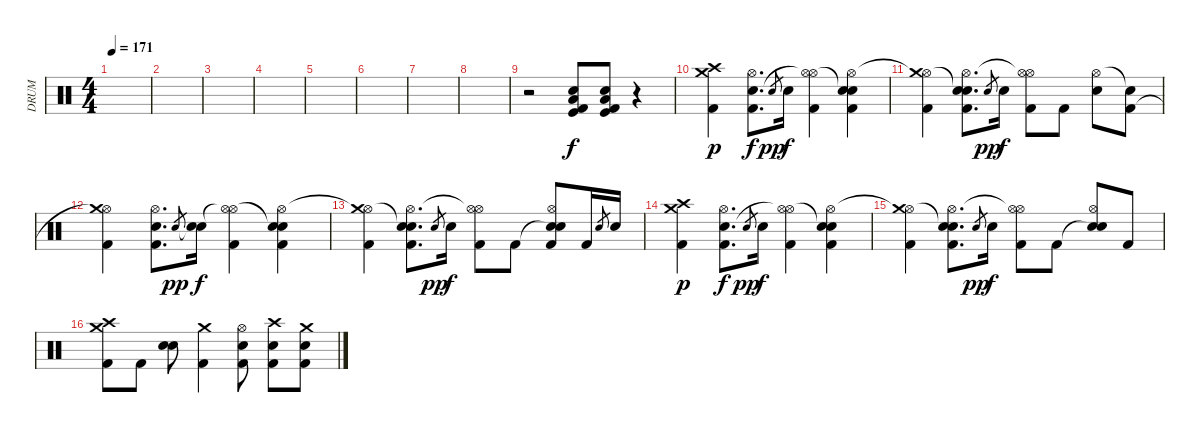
\track ("DRUM" "DRUM") {instrument percussion}
\staff {score}
\articulation defaults
\ts (4 4)
\tempo 171
\clef neutral
\ks c
|
|
|
|
|
|
|
|
r.2 ("Electric Snare (hit)" "Low Floor Tom (hit)" "Kick (hit)" "Kick (hit) 2").8 ("Electric Snare (hit)" "Low Floor Tom (hit)" "Kick (hit)" "Kick (hit) 2").8 r.4 |
("Crash high (hit)" "Crash medium (hit)" "Kick (hit) 2").4{dy p} ("Hi-Hat (open)" "Electric Snare (hit)" "Kick (hit) 2").8{d dy f} "Electric Snare (hit)".8{gr dy pp} "Electric Snare (hit)".16{dy f} ("Hi-Hat (open)" "Hi-Hat (open)"{t} "Kick (hit) 2").4 ("Snare (hit)"{t} "Hi-Hat (open)" "Electric Snare (hit)" "Kick (hit) 2").4 |
("Hi-Hat (open)" "Crash medium (hit)"{t} "Kick (hit) 2").4 ("Snare (hit)"{t} "Hi-Hat (open)" "Electric Snare (hit)" "Kick (hit) 2").8{d} "Electric Snare (hit)".8{gr dy pp} "Electric Snare (hit)".16{dy f} ("Hi-Hat (open)" "Hi-Hat (open)"{t} "Kick (hit) 2").8 "Kick (hit) 2".8 ("Hi-Hat (open)" "Electric Snare (hit)").8 ("Snare (hit)"{t} "Kick (hit) 2").8 |
("Hi-Hat (open)" "Crash medium (hit)"{t} "Kick (hit) 2").4 ("Hi-Hat (open)" "Electric Snare (hit)" "Kick (hit) 2").8{d} "Electric Snare (hit)".8{gr dy pp} ("Snare (hit)"{t} "Electric Snare (hit)").16{dy f} ("Hi-Hat (open)" "Hi-Hat (open)"{t} "Kick (hit) 2").4 ("Snare (hit)"{t} "Hi-Hat (open)" "Electric Snare (hit)" "Kick (hit) 2").4 |
("Hi-Hat (open)" "Crash medium (hit)"{t} "Kick (hit) 2").4 ("Snare (hit)"{t} "Hi-Hat (open)" "Electric Snare (hit)" "Kick (hit) 2").8{d} "Electric Snare (hit)".8{gr dy pp} "Electric Snare (hit)".16{dy f} ("Hi-Hat (open)" "Hi-Hat (open)"{t} "Kick (hit) 2").8 "Kick (hit) 2".8 ("Snare (hit)"{t} "Hi-Hat (open)" "Electric Snare (hit)" "Kick (hit) 2").8 "Kick (hit) 2".16 "Electric Snare (hit)".8{gr} "Electric Snare (hit)".16 |
("Crash high (hit)" "Crash medium (hit)" "Kick (hit) 2").4{dy p} ("Hi-Hat (open)" "Electric Snare (hit)" "Kick (hit) 2").8{d dy f} "Electric Snare (hit)".8{gr dy pp} "Electric Snare (hit)".16{dy f} ("Hi-Hat (open)" "Hi-Hat (open)"{t} "Kick (hit) 2").4 ("Snare (hit)"{t} "Hi-Hat (open)" "Electric Snare (hit)" "Kick (hit) 2").4 |
("Hi-Hat (open)" "Crash medium (hit)"{t} "Kick (hit) 2").4 ("Snare (hit)"{t} "Hi-Hat (open)" "Electric Snare (hit)" "Kick (hit) 2").8{d} "Electric Snare (hit)".8{gr dy pp} "Electric Snare (hit)".16{dy f} ("Hi-Hat (open)" "Hi-Hat (open)"{t} "Kick (hit) 2").8 "Kick (hit) 2".8 ("Snare (hit)"{t} "Hi-Hat (open)" "Electric Snare (hit)").8 "Kick (hit) 2".8 |
("Crash medium (hit)" "Crash high (hit)" "Kick (hit) 2").8 "Kick (hit) 2".8 ("Electric Snare (hit)" "Electric Snare (hit)").8{bd 240} ("Crash medium (hit)" "Kick (hit) 2").4 ("Hi-Hat (open)" "Electric Snare (hit)" "Kick (hit) 2").8 ("Crash high (hit)" "Electric Snare (hit)" "Kick (hit) 2").8 ("Crash medium (hit)" "Electric Snare (hit)" "Kick (hit) 2").8
